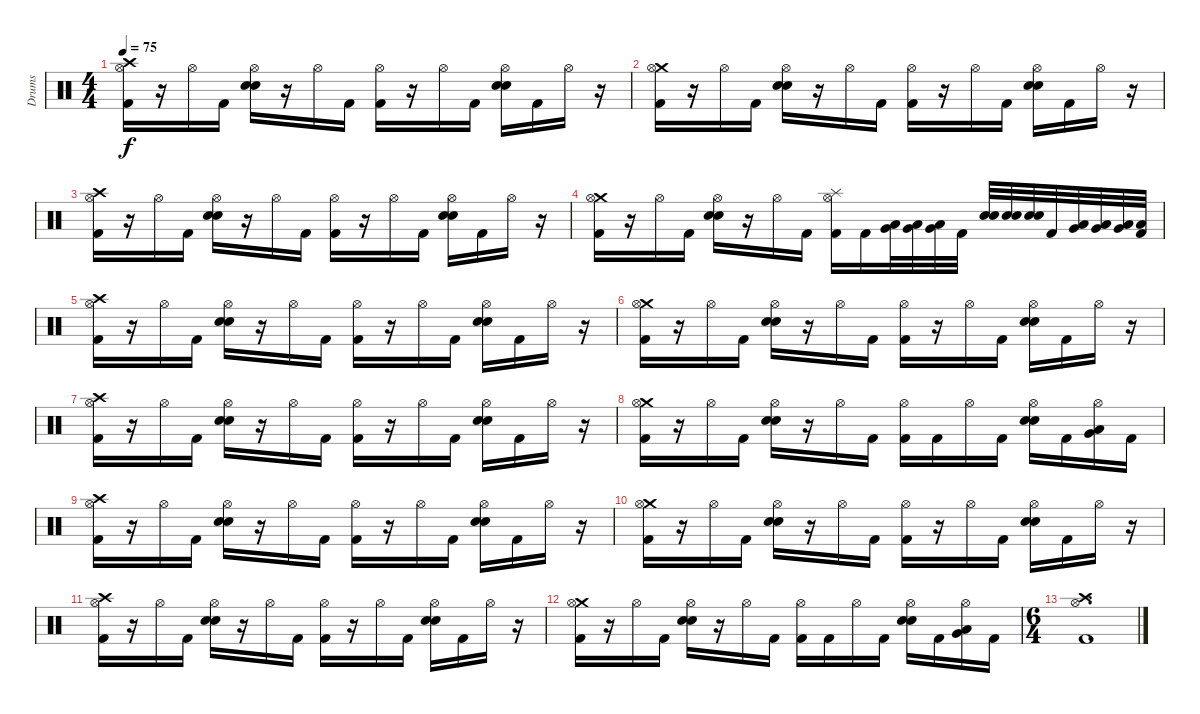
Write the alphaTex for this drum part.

\track ("Drums" "Drums") {instrument percussion}
\staff {score}
\articulation defaults
\ts (4 4)
\tempo 75
\clef neutral
\ks c
("Crash high (hit)" "Hi-Hat (open)" "Kick (hit) 2").16{dy f} r.16 "Hi-Hat (open)".16 "Kick (hit) 2".16 ("Hi-Hat (open)" "Electric Snare (hit)" "Snare (hit) 2").16 r.16 "Hi-Hat (open)".16 "Kick (hit) 2".16 ("Hi-Hat (open)" "Kick (hit) 2").16 r.16 "Hi-Hat (open)".16 "Kick (hit) 2".16 ("Hi-Hat (open)" "Electric Snare (hit)" "Snare (hit) 2").16 "Kick (hit) 2".16 "Hi-Hat (open)".16 r.16 |
("Crash medium (hit)" "Hi-Hat (open)" "Kick (hit) 2").16 r.16 "Hi-Hat (open)".16 "Kick (hit) 2".16 ("Hi-Hat (open)" "Electric Snare (hit)" "Snare (hit) 2").16 r.16 "Hi-Hat (open)".16 "Kick (hit) 2".16 ("Hi-Hat (open)" "Kick (hit) 2").16 r.16 "Hi-Hat (open)".16 "Kick (hit) 2".16 ("Hi-Hat (open)" "Electric Snare (hit)" "Snare (hit) 2").16 "Kick (hit) 2".16 "Hi-Hat (open)".16 r.16 |
("Crash high (hit)" "Hi-Hat (open)" "Kick (hit) 2").16 r.16 "Hi-Hat (open)".16 "Kick (hit) 2".16 ("Hi-Hat (open)" "Electric Snare (hit)" "Snare (hit) 2").16 r.16 "Hi-Hat (open)".16 "Kick (hit) 2".16 ("Hi-Hat (open)" "Kick (hit) 2").16 r.16 "Hi-Hat (open)".16 "Kick (hit) 2".16 ("Hi-Hat (open)" "Electric Snare (hit)" "Snare (hit) 2").16 "Kick (hit) 2".16 "Hi-Hat (open)".16 r.16 |
("Crash medium (hit)" "Hi-Hat (open)" "Kick (hit) 2").16 r.16 "Hi-Hat (open)".16 "Kick (hit) 2".16 ("Hi-Hat (open)" "Electric Snare (hit)" "Snare (hit) 2").16 r.16 "Hi-Hat (open)".16 "Kick (hit) 2".16 ("Splash (hit)" "Hi-Hat (open)" "Kick (hit) 2").16 "Kick (hit) 2".16 ("Low Tom (hit)" "Very Low Tom (hit)").32 ("Low Tom (hit)" "Very Low Tom (hit)").32 ("Low Tom (hit)" "Very Low Tom (hit)").32 "Kick (hit) 2".32 ("Electric Snare (hit)" "Snare (hit) 2").32 ("Electric Snare (hit)" "Snare (hit) 2").32 ("Electric Snare (hit)" "Snare (hit) 2").32 "Kick (hit) 2".32 ("Very Low Tom (hit)" "Low Floor Tom (hit)").32 ("Very Low Tom (hit)" "Low Floor Tom (hit)").32 ("Very Low Tom (hit)" "Low Floor Tom (hit)").32 ("Low Floor Tom (hit)" "Kick (hit) 2").32 |
("Crash high (hit)" "Hi-Hat (open)" "Kick (hit) 2").16 r.16 "Hi-Hat (open)".16 "Kick (hit) 2".16 ("Hi-Hat (open)" "Electric Snare (hit)" "Snare (hit) 2").16 r.16 "Hi-Hat (open)".16 "Kick (hit) 2".16 ("Hi-Hat (open)" "Kick (hit) 2").16 r.16 "Hi-Hat (open)".16 "Kick (hit) 2".16 ("Hi-Hat (open)" "Electric Snare (hit)" "Snare (hit) 2").16 "Kick (hit) 2".16 "Hi-Hat (open)".16 r.16 |
("Crash medium (hit)" "Hi-Hat (open)" "Kick (hit) 2").16 r.16 "Hi-Hat (open)".16 "Kick (hit) 2".16 ("Hi-Hat (open)" "Electric Snare (hit)" "Snare (hit) 2").16 r.16 "Hi-Hat (open)".16 "Kick (hit) 2".16 ("Hi-Hat (open)" "Kick (hit) 2").16 r.16 "Hi-Hat (open)".16 "Kick (hit) 2".16 ("Hi-Hat (open)" "Electric Snare (hit)" "Snare (hit) 2").16 "Kick (hit) 2".16 "Hi-Hat (open)".16 r.16 |
("Crash high (hit)" "Hi-Hat (open)" "Kick (hit) 2").16 r.16 "Hi-Hat (open)".16 "Kick (hit) 2".16 ("Hi-Hat (open)" "Electric Snare (hit)" "Snare (hit) 2").16 r.16 "Hi-Hat (open)".16 "Kick (hit) 2".16 ("Hi-Hat (open)" "Kick (hit) 2").16 r.16 "Hi-Hat (open)".16 "Kick (hit) 2".16 ("Hi-Hat (open)" "Electric Snare (hit)" "Snare (hit) 2").16 "Kick (hit) 2".16 "Hi-Hat (open)".16 r.16 |
("Crash medium (hit)" "Hi-Hat (open)" "Kick (hit) 2").16 r.16 "Hi-Hat (open)".16 "Kick (hit) 2".16 ("Hi-Hat (open)" "Electric Snare (hit)" "Snare (hit) 2").16 r.16 "Hi-Hat (open)".16 "Kick (hit) 2".16 ("Hi-Hat (open)" "Kick (hit) 2").16 "Kick (hit) 2".16 "Hi-Hat (open)".16 "Kick (hit) 2".16 ("Hi-Hat (open)" "Electric Snare (hit)" "Snare (hit) 2").16 "Kick (hit) 2".16 ("Hi-Hat (open)" "Very Low Tom (hit)" "Low Floor Tom (hit)").16 "Kick (hit) 2".16 |
("Crash high (hit)" "Hi-Hat (open)" "Kick (hit) 2").16 r.16 "Hi-Hat (open)".16 "Kick (hit) 2".16 ("Hi-Hat (open)" "Electric Snare (hit)" "Snare (hit) 2").16 r.16 "Hi-Hat (open)".16 "Kick (hit) 2".16 ("Hi-Hat (open)" "Kick (hit) 2").16 r.16 "Hi-Hat (open)".16 "Kick (hit) 2".16 ("Hi-Hat (open)" "Electric Snare (hit)" "Snare (hit) 2").16 "Kick (hit) 2".16 "Hi-Hat (open)".16 r.16 |
("Crash medium (hit)" "Hi-Hat (open)" "Kick (hit) 2").16 r.16 "Hi-Hat (open)".16 "Kick (hit) 2".16 ("Hi-Hat (open)" "Electric Snare (hit)" "Snare (hit) 2").16 r.16 "Hi-Hat (open)".16 "Kick (hit) 2".16 ("Hi-Hat (open)" "Kick (hit) 2").16 r.16 "Hi-Hat (open)".16 "Kick (hit) 2".16 ("Hi-Hat (open)" "Electric Snare (hit)" "Snare (hit) 2").16 "Kick (hit) 2".16 "Hi-Hat (open)".16 r.16 |
("Crash high (hit)" "Hi-Hat (open)" "Kick (hit) 2").16 r.16 "Hi-Hat (open)".16 "Kick (hit) 2".16 ("Hi-Hat (open)" "Electric Snare (hit)" "Snare (hit) 2").16 r.16 "Hi-Hat (open)".16 "Kick (hit) 2".16 ("Hi-Hat (open)" "Kick (hit) 2").16 r.16 "Hi-Hat (open)".16 "Kick (hit) 2".16 ("Hi-Hat (open)" "Electric Snare (hit)" "Snare (hit) 2").16 "Kick (hit) 2".16 "Hi-Hat (open)".16 r.16 |
("Crash medium (hit)" "Hi-Hat (open)" "Kick (hit) 2").16 r.16 "Hi-Hat (open)".16 "Kick (hit) 2".16 ("Hi-Hat (open)" "Electric Snare (hit)" "Snare (hit) 2").16 r.16 "Hi-Hat (open)".16 "Kick (hit) 2".16 ("Hi-Hat (open)" "Kick (hit) 2").16 "Kick (hit) 2".16 "Hi-Hat (open)".16 "Kick (hit) 2".16 ("Hi-Hat (open)" "Electric Snare (hit)" "Snare (hit) 2").16 "Kick (hit) 2".16 ("Hi-Hat (open)" "Very Low Tom (hit)" "Low Floor Tom (hit)").16 "Kick (hit) 2".16 |
\ts (6 4)
("Crash high (hit)" "Hi-Hat (open)" "Kick (hit) 2").1{d}
